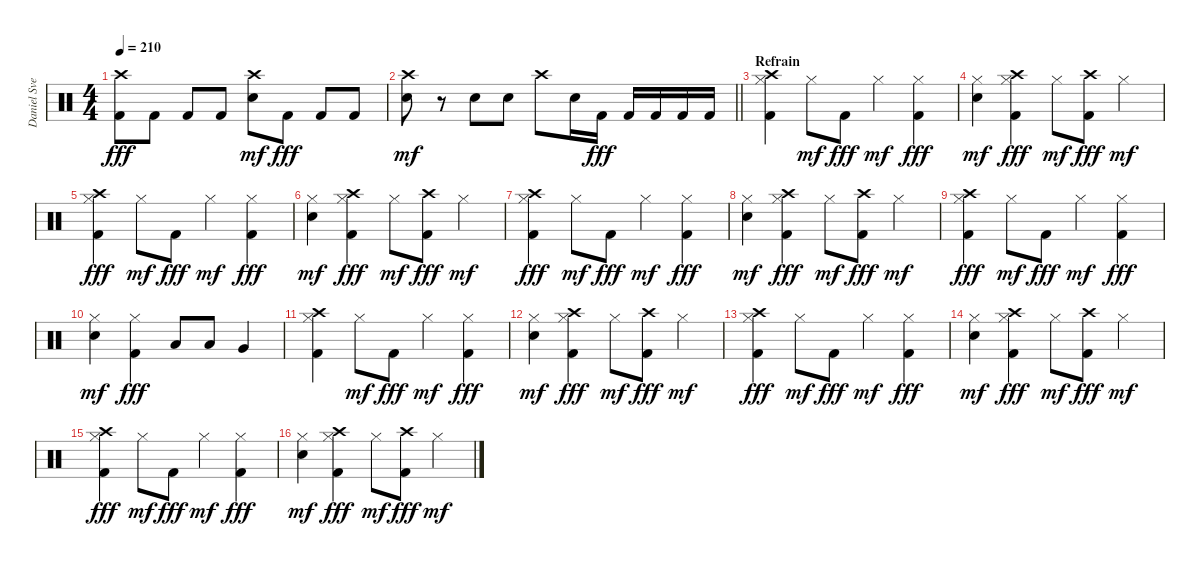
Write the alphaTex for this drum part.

\track ("Daniel Svensson" "Daniel Sve") {instrument percussion}
\staff {score}
\articulation defaults
\ts (4 4)
\tempo 210
\clef neutral
\ks c
("Crash high (hit)" "Kick (hit) 2").8{dy fff} "Kick (hit) 2".8 "Kick (hit) 2".8 "Kick (hit) 2".8 ("Crash high (hit)" "Electric Snare (hit)").8{dy mf} "Kick (hit) 2".8{dy fff} "Kick (hit) 2".8 "Kick (hit) 2".8 |
\barLineRight lightlight
("Crash high (hit)" "Electric Snare (hit)").8{dy mf} r.8 "Electric Snare (hit)".8 "Electric Snare (hit)".8 "Crash high (hit)".8 "Electric Snare (hit)".16 "Kick (hit) 2".16{dy fff} "Kick (hit) 2".16 "Kick (hit) 2".16 "Kick (hit) 2".16 "Kick (hit) 2".16 |
\section ("" "Refrain")
("Crash high (hit)" "Hi-Hat (closed)" "Kick (hit) 2").4 "Hi-Hat (closed)".8{dy mf} "Kick (hit) 2".8{dy fff} "Hi-Hat (closed)".4{dy mf} ("Hi-Hat (closed)" "Kick (hit) 2").4{dy fff} |
("Hi-Hat (closed)" "Electric Snare (hit)").4{dy mf} ("Crash high (hit)" "Hi-Hat (closed)" "Kick (hit) 2").4{dy fff} "Hi-Hat (closed)".8{dy mf} ("Crash high (hit)" "Kick (hit) 2").8{dy fff} "Hi-Hat (closed)".4{dy mf} |
("Crash high (hit)" "Hi-Hat (closed)" "Kick (hit) 2").4{dy fff} "Hi-Hat (closed)".8{dy mf} "Kick (hit) 2".8{dy fff} "Hi-Hat (closed)".4{dy mf} ("Hi-Hat (closed)" "Kick (hit) 2").4{dy fff} |
("Hi-Hat (closed)" "Electric Snare (hit)").4{dy mf} ("Crash high (hit)" "Hi-Hat (closed)" "Kick (hit) 2").4{dy fff} "Hi-Hat (closed)".8{dy mf} ("Crash high (hit)" "Kick (hit) 2").8{dy fff} "Hi-Hat (closed)".4{dy mf} |
("Crash high (hit)" "Hi-Hat (closed)" "Kick (hit) 2").4{dy fff} "Hi-Hat (closed)".8{dy mf} "Kick (hit) 2".8{dy fff} "Hi-Hat (closed)".4{dy mf} ("Hi-Hat (closed)" "Kick (hit) 2").4{dy fff} |
("Hi-Hat (closed)" "Electric Snare (hit)").4{dy mf} ("Crash high (hit)" "Hi-Hat (closed)" "Kick (hit) 2").4{dy fff} "Hi-Hat (closed)".8{dy mf} ("Crash high (hit)" "Kick (hit) 2").8{dy fff} "Hi-Hat (closed)".4{dy mf} |
("Crash high (hit)" "Hi-Hat (closed)" "Kick (hit) 2").4{dy fff} "Hi-Hat (closed)".8{dy mf} "Kick (hit) 2".8{dy fff} "Hi-Hat (closed)".4{dy mf} ("Hi-Hat (closed)" "Kick (hit) 2").4{dy fff} |
("Hi-Hat (closed)" "Electric Snare (hit)").4{dy mf} ("Hi-Hat (closed)" "Kick (hit) 2").4{dy fff} "Low Tom (hit)".8 "Low Tom (hit)".8 "Very Low Tom (hit)".4 |
("Crash high (hit)" "Hi-Hat (closed)" "Kick (hit) 2").4 "Hi-Hat (closed)".8{dy mf} "Kick (hit) 2".8{dy fff} "Hi-Hat (closed)".4{dy mf} ("Hi-Hat (closed)" "Kick (hit) 2").4{dy fff} |
("Hi-Hat (closed)" "Electric Snare (hit)").4{dy mf} ("Crash high (hit)" "Hi-Hat (closed)" "Kick (hit) 2").4{dy fff} "Hi-Hat (closed)".8{dy mf} ("Crash high (hit)" "Kick (hit) 2").8{dy fff} "Hi-Hat (closed)".4{dy mf} |
("Crash high (hit)" "Hi-Hat (closed)" "Kick (hit) 2").4{dy fff} "Hi-Hat (closed)".8{dy mf} "Kick (hit) 2".8{dy fff} "Hi-Hat (closed)".4{dy mf} ("Hi-Hat (closed)" "Kick (hit) 2").4{dy fff} |
("Hi-Hat (closed)" "Electric Snare (hit)").4{dy mf} ("Crash high (hit)" "Hi-Hat (closed)" "Kick (hit) 2").4{dy fff} "Hi-Hat (closed)".8{dy mf} ("Crash high (hit)" "Kick (hit) 2").8{dy fff} "Hi-Hat (closed)".4{dy mf} |
("Crash high (hit)" "Hi-Hat (closed)" "Kick (hit) 2").4{dy fff} "Hi-Hat (closed)".8{dy mf} "Kick (hit) 2".8{dy fff} "Hi-Hat (closed)".4{dy mf} ("Hi-Hat (closed)" "Kick (hit) 2").4{dy fff} |
("Hi-Hat (closed)" "Electric Snare (hit)").4{dy mf} ("Crash high (hit)" "Hi-Hat (closed)" "Kick (hit) 2").4{dy fff} "Hi-Hat (closed)".8{dy mf} ("Crash high (hit)" "Kick (hit) 2").8{dy fff} "Hi-Hat (closed)".4{dy mf}
